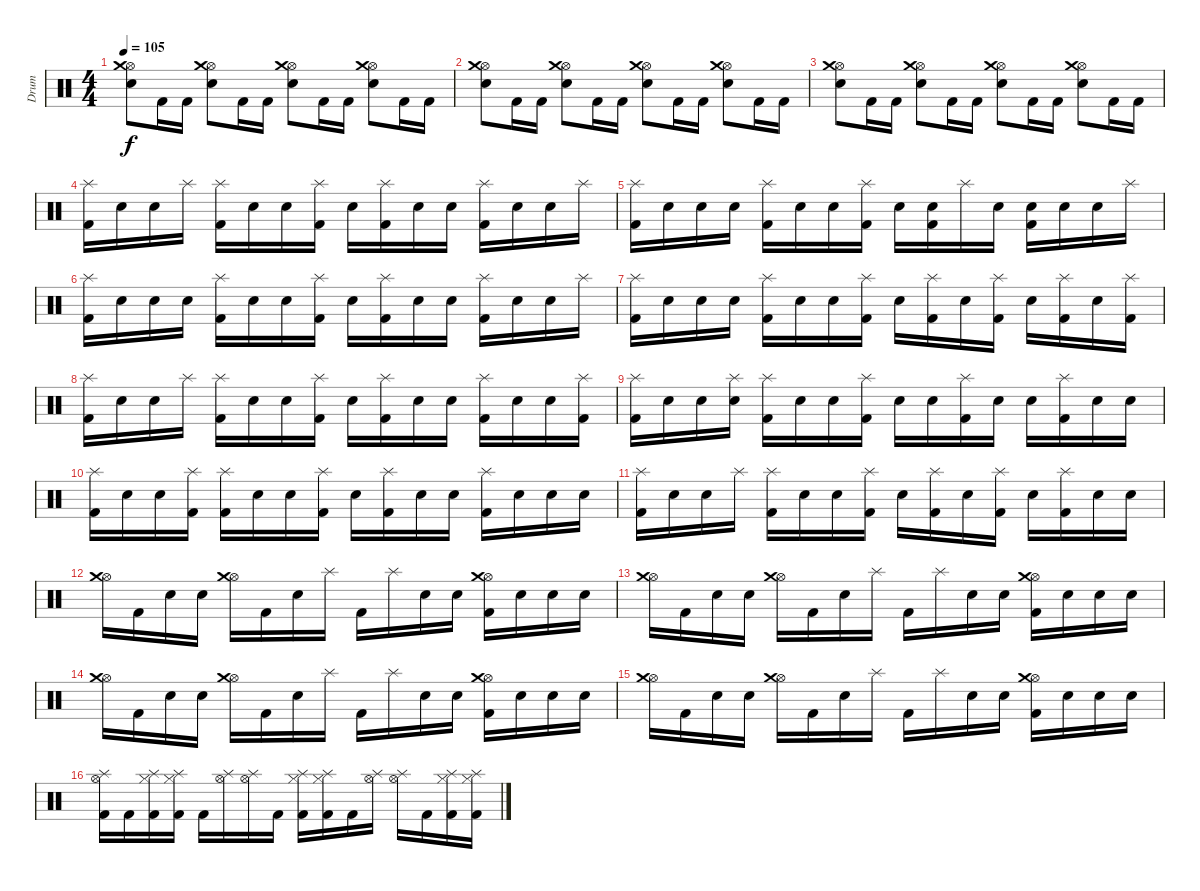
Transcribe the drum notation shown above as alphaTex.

\track ("Drum" "Drum") {instrument percussion}
\staff {score}
\articulation defaults
\ts (4 4)
\tempo 105
\clef neutral
\ks c
("Hi-Hat (open)" "Crash medium (hit)" "Electric Snare (hit)").8{dy f} "Kick (hit) 2".16 "Kick (hit) 2".16 ("Hi-Hat (open)" "Crash medium (hit)" "Electric Snare (hit)").8 "Kick (hit) 2".16 "Kick (hit) 2".16 ("Hi-Hat (open)" "Crash medium (hit)" "Electric Snare (hit)").8 "Kick (hit) 2".16 "Kick (hit) 2".16 ("Hi-Hat (open)" "Crash medium (hit)" "Electric Snare (hit)").8 "Kick (hit) 2".16 "Kick (hit) 2".16 |
("Hi-Hat (open)" "Crash medium (hit)" "Electric Snare (hit)").8 "Kick (hit) 2".16 "Kick (hit) 2".16 ("Hi-Hat (open)" "Crash medium (hit)" "Electric Snare (hit)").8 "Kick (hit) 2".16 "Kick (hit) 2".16 ("Hi-Hat (open)" "Crash medium (hit)" "Electric Snare (hit)").8 "Kick (hit) 2".16 "Kick (hit) 2".16 ("Hi-Hat (open)" "Crash medium (hit)" "Electric Snare (hit)").8 "Kick (hit) 2".16 "Kick (hit) 2".16 |
("Hi-Hat (open)" "Crash medium (hit)" "Electric Snare (hit)").8 "Kick (hit) 2".16 "Kick (hit) 2".16 ("Hi-Hat (open)" "Crash medium (hit)" "Electric Snare (hit)").8 "Kick (hit) 2".16 "Kick (hit) 2".16 ("Hi-Hat (open)" "Crash medium (hit)" "Electric Snare (hit)").8 "Kick (hit) 2".16 "Kick (hit) 2".16 ("Hi-Hat (open)" "Crash medium (hit)" "Electric Snare (hit)").8 "Kick (hit) 2".16 "Kick (hit) 2".16 |
("Kick (hit) 2" "Splash (hit)").16 "Electric Snare (hit)".16 "Electric Snare (hit)".16 "Splash (hit)".16 ("Kick (hit) 2" "Splash (hit)").16 "Electric Snare (hit)".16 "Electric Snare (hit)".16 ("Kick (hit) 2" "Splash (hit)").16 "Electric Snare (hit)".16 ("Kick (hit) 2" "Splash (hit)").16 "Electric Snare (hit)".16 "Electric Snare (hit)".16 ("Kick (hit) 2" "Splash (hit)").16 "Electric Snare (hit)".16 "Electric Snare (hit)".16 "Splash (hit)".16 |
("Kick (hit) 2" "Splash (hit)").16 "Electric Snare (hit)".16 "Electric Snare (hit)".16 "Electric Snare (hit)".16 ("Kick (hit) 2" "Splash (hit)").16 "Electric Snare (hit)".16 "Electric Snare (hit)".16 ("Kick (hit) 2" "Splash (hit)").16 "Electric Snare (hit)".16 ("Electric Snare (hit)" "Kick (hit) 2").16 "Splash (hit)".16 "Electric Snare (hit)".16 ("Electric Snare (hit)" "Kick (hit) 2").16 "Electric Snare (hit)".16 "Electric Snare (hit)".16 "Splash (hit)".16 |
("Kick (hit) 2" "Splash (hit)").16 "Electric Snare (hit)".16 "Electric Snare (hit)".16 "Electric Snare (hit)".16 ("Kick (hit) 2" "Splash (hit)").16 "Electric Snare (hit)".16 "Electric Snare (hit)".16 ("Kick (hit) 2" "Splash (hit)").16 "Electric Snare (hit)".16 ("Kick (hit) 2" "Splash (hit)").16 "Electric Snare (hit)".16 "Electric Snare (hit)".16 ("Kick (hit) 2" "Splash (hit)").16 "Electric Snare (hit)".16 "Electric Snare (hit)".16 "Splash (hit)".16 |
("Kick (hit) 2" "Splash (hit)").16 "Electric Snare (hit)".16 "Electric Snare (hit)".16 "Electric Snare (hit)".16 ("Kick (hit) 2" "Splash (hit)").16 "Electric Snare (hit)".16 "Electric Snare (hit)".16 ("Kick (hit) 2" "Splash (hit)").16 "Electric Snare (hit)".16 ("Kick (hit) 2" "Splash (hit)").16 "Electric Snare (hit)".16 ("Kick (hit) 2" "Splash (hit)").16 "Electric Snare (hit)".16 ("Kick (hit) 2" "Splash (hit)").16 "Electric Snare (hit)".16 ("Kick (hit) 2" "Splash (hit)").16 |
("Kick (hit) 2" "Splash (hit)").16 "Electric Snare (hit)".16 "Electric Snare (hit)".16 "Splash (hit)".16 ("Kick (hit) 2" "Splash (hit)").16 "Electric Snare (hit)".16 "Electric Snare (hit)".16 ("Kick (hit) 2" "Splash (hit)").16 "Electric Snare (hit)".16 ("Kick (hit) 2" "Splash (hit)").16 "Electric Snare (hit)".16 "Electric Snare (hit)".16 ("Kick (hit) 2" "Splash (hit)").16 "Electric Snare (hit)".16 "Electric Snare (hit)".16 ("Kick (hit) 2" "Splash (hit)").16 |
("Kick (hit) 2" "Splash (hit)").16 "Electric Snare (hit)".16 "Electric Snare (hit)".16 ("Splash (hit)" "Electric Snare (hit)").16 ("Kick (hit) 2" "Splash (hit)").16 "Electric Snare (hit)".16 "Electric Snare (hit)".16 ("Kick (hit) 2" "Splash (hit)").16 "Electric Snare (hit)".16 "Electric Snare (hit)".16 ("Kick (hit) 2" "Splash (hit)").16 "Electric Snare (hit)".16 "Electric Snare (hit)".16 ("Kick (hit) 2" "Splash (hit)").16 "Electric Snare (hit)".16 "Electric Snare (hit)".16 |
("Kick (hit) 2" "Splash (hit)").16 "Electric Snare (hit)".16 "Electric Snare (hit)".16 ("Kick (hit) 2" "Splash (hit)").16 ("Kick (hit) 2" "Splash (hit)").16 "Electric Snare (hit)".16 "Electric Snare (hit)".16 ("Kick (hit) 2" "Splash (hit)").16 "Electric Snare (hit)".16 ("Kick (hit) 2" "Splash (hit)").16 "Electric Snare (hit)".16 "Electric Snare (hit)".16 ("Kick (hit) 2" "Splash (hit)").16 "Electric Snare (hit)".16 "Electric Snare (hit)".16 "Electric Snare (hit)".16 |
("Kick (hit) 2" "Splash (hit)").16 "Electric Snare (hit)".16 "Electric Snare (hit)".16 "Splash (hit)".16 ("Kick (hit) 2" "Splash (hit)").16 "Electric Snare (hit)".16 "Electric Snare (hit)".16 ("Kick (hit) 2" "Splash (hit)").16 "Electric Snare (hit)".16 ("Kick (hit) 2" "Splash (hit)").16 "Electric Snare (hit)".16 ("Kick (hit) 2" "Splash (hit)").16 "Electric Snare (hit)".16 ("Kick (hit) 2" "Splash (hit)").16 "Electric Snare (hit)".16 "Electric Snare (hit)".16 |
("Hi-Hat (open)" "Crash medium (hit)").16 "Kick (hit) 2".16 "Electric Snare (hit)".16 "Electric Snare (hit)".16 ("Hi-Hat (open)" "Crash medium (hit)").16 "Kick (hit) 2".16 "Electric Snare (hit)".16 "Splash (hit)".16 "Kick (hit) 2".16 "Splash (hit)".16 "Electric Snare (hit)".16 "Electric Snare (hit)".16 ("Kick (hit) 2" "Hi-Hat (open)" "Crash medium (hit)").16 "Electric Snare (hit)".16 "Electric Snare (hit)".16 "Electric Snare (hit)".16 |
("Hi-Hat (open)" "Crash medium (hit)").16 "Kick (hit) 2".16 "Electric Snare (hit)".16 "Electric Snare (hit)".16 ("Hi-Hat (open)" "Crash medium (hit)").16 "Kick (hit) 2".16 "Electric Snare (hit)".16 "Splash (hit)".16 "Kick (hit) 2".16 "Splash (hit)".16 "Electric Snare (hit)".16 "Electric Snare (hit)".16 ("Kick (hit) 2" "Hi-Hat (open)" "Crash medium (hit)").16 "Electric Snare (hit)".16 "Electric Snare (hit)".16 "Electric Snare (hit)".16 |
("Hi-Hat (open)" "Crash medium (hit)").16 "Kick (hit) 2".16 "Electric Snare (hit)".16 "Electric Snare (hit)".16 ("Hi-Hat (open)" "Crash medium (hit)").16 "Kick (hit) 2".16 "Electric Snare (hit)".16 "Splash (hit)".16 "Kick (hit) 2".16 "Splash (hit)".16 "Electric Snare (hit)".16 "Electric Snare (hit)".16 ("Kick (hit) 2" "Hi-Hat (open)" "Crash medium (hit)").16 "Electric Snare (hit)".16 "Electric Snare (hit)".16 "Electric Snare (hit)".16 |
("Hi-Hat (open)" "Crash medium (hit)").16 "Kick (hit) 2".16 "Electric Snare (hit)".16 "Electric Snare (hit)".16 ("Hi-Hat (open)" "Crash medium (hit)").16 "Kick (hit) 2".16 "Electric Snare (hit)".16 "Splash (hit)".16 "Kick (hit) 2".16 "Splash (hit)".16 "Electric Snare (hit)".16 "Electric Snare (hit)".16 ("Kick (hit) 2" "Hi-Hat (open)" "Crash medium (hit)").16 "Electric Snare (hit)".16 "Electric Snare (hit)".16 "Electric Snare (hit)".16 |
("Kick (hit) 2" "Hi-Hat (open)" "Splash (hit)").16 "Kick (hit) 2".16 ("Kick (hit) 2" "Hi-Hat (closed)" "Splash (hit)").16 ("Kick (hit) 2" "Hi-Hat (closed)" "Splash (hit)").16 "Kick (hit) 2".16 ("Hi-Hat (open)" "Splash (hit)").16 ("Hi-Hat (open)" "Splash (hit)").16 "Kick (hit) 2".16 ("Kick (hit) 2" "Hi-Hat (closed)" "Splash (hit)").16 ("Kick (hit) 2" "Hi-Hat (closed)" "Splash (hit)").16 "Kick (hit) 2".16 ("Hi-Hat (open)" "Splash (hit)").16 ("Hi-Hat (open)" "Splash (hit)").16 "Kick (hit) 2".16 ("Kick (hit) 2" "Hi-Hat (closed)" "Splash (hit)").16 ("Kick (hit) 2" "Hi-Hat (closed)" "Splash (hit)").16
